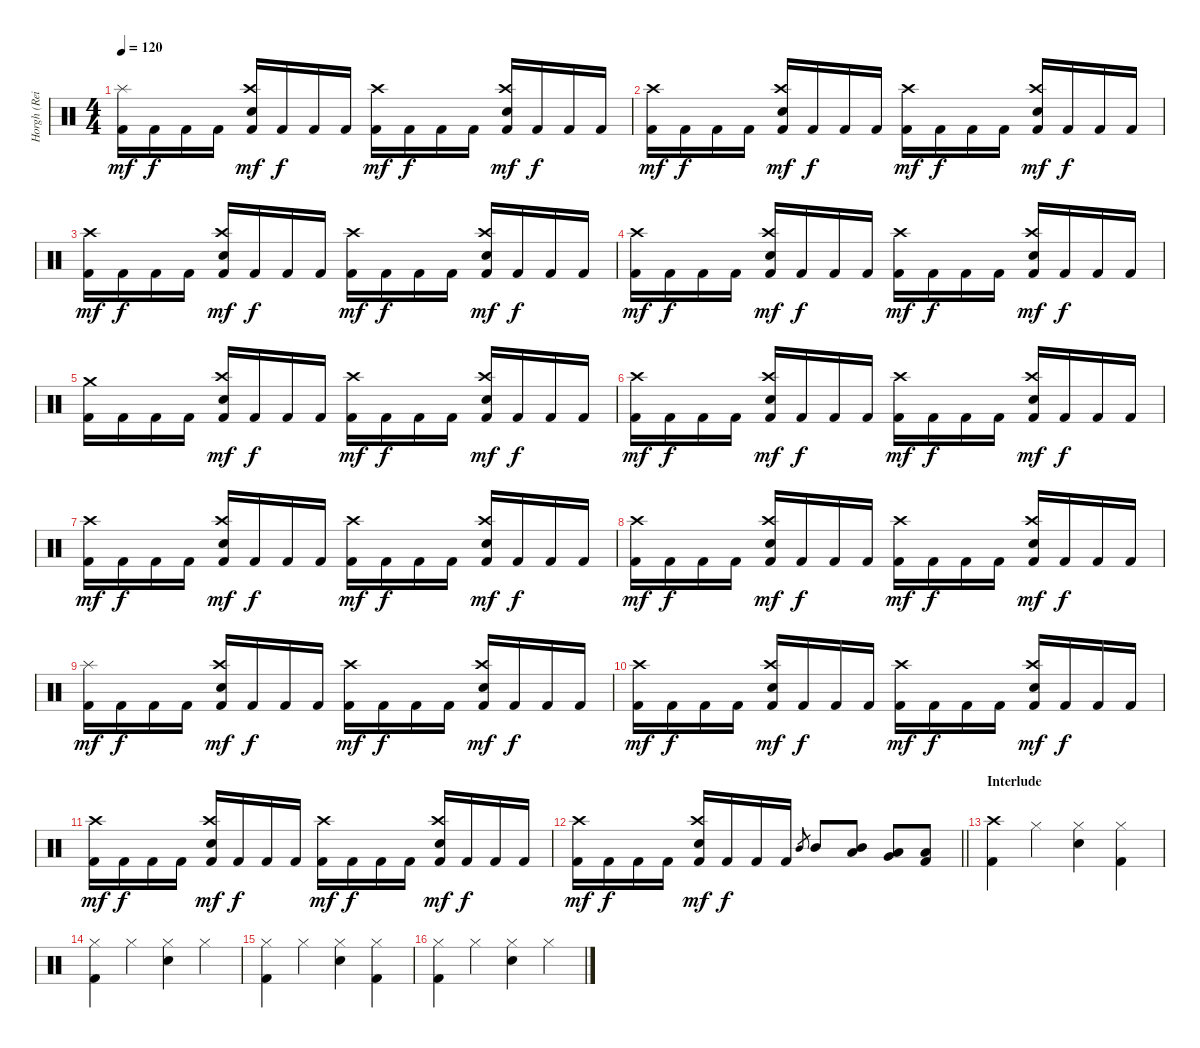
\track ("Horgh (Reidar Horghagen)" "Horgh (Rei") {instrument percussion}
\staff {score}
\articulation defaults
\ts (4 4)
\tempo 120
\clef neutral
\ks c
("Splash (hit)" "Kick (hit) 2").16{dy mf} "Kick (hit) 2".16{dy f} "Kick (hit) 2".16 "Kick (hit) 2".16 ("Crash high (hit)" "Snare (hit) 2" "Kick (hit) 2").16{dy mf} "Kick (hit) 2".16{dy f} "Kick (hit) 2".16 "Kick (hit) 2".16 ("Crash high (hit)" "Kick (hit) 2").16{dy mf} "Kick (hit) 2".16{dy f} "Kick (hit) 2".16 "Kick (hit) 2".16 ("Crash high (hit)" "Snare (hit) 2" "Kick (hit) 2").16{dy mf} "Kick (hit) 2".16{dy f} "Kick (hit) 2".16 "Kick (hit) 2".16 |
("Crash high (hit)" "Kick (hit) 2").16{dy mf} "Kick (hit) 2".16{dy f} "Kick (hit) 2".16 "Kick (hit) 2".16 ("Crash high (hit)" "Snare (hit) 2" "Kick (hit) 2").16{dy mf} "Kick (hit) 2".16{dy f} "Kick (hit) 2".16 "Kick (hit) 2".16 ("Crash high (hit)" "Kick (hit) 2").16{dy mf} "Kick (hit) 2".16{dy f} "Kick (hit) 2".16 "Kick (hit) 2".16 ("Crash high (hit)" "Snare (hit) 2" "Kick (hit) 2").16{dy mf} "Kick (hit) 2".16{dy f} "Kick (hit) 2".16 "Kick (hit) 2".16 |
("Crash high (hit)" "Kick (hit) 2").16{dy mf} "Kick (hit) 2".16{dy f} "Kick (hit) 2".16 "Kick (hit) 2".16 ("Crash high (hit)" "Snare (hit) 2" "Kick (hit) 2").16{dy mf} "Kick (hit) 2".16{dy f} "Kick (hit) 2".16 "Kick (hit) 2".16 ("Crash high (hit)" "Kick (hit) 2").16{dy mf} "Kick (hit) 2".16{dy f} "Kick (hit) 2".16 "Kick (hit) 2".16 ("Crash high (hit)" "Snare (hit) 2" "Kick (hit) 2").16{dy mf} "Kick (hit) 2".16{dy f} "Kick (hit) 2".16 "Kick (hit) 2".16 |
("Crash high (hit)" "Kick (hit) 2").16{dy mf} "Kick (hit) 2".16{dy f} "Kick (hit) 2".16 "Kick (hit) 2".16 ("Crash high (hit)" "Snare (hit) 2" "Kick (hit) 2").16{dy mf} "Kick (hit) 2".16{dy f} "Kick (hit) 2".16 "Kick (hit) 2".16 ("Crash high (hit)" "Kick (hit) 2").16{dy mf} "Kick (hit) 2".16{dy f} "Kick (hit) 2".16 "Kick (hit) 2".16 ("Crash high (hit)" "Snare (hit) 2" "Kick (hit) 2").16{dy mf} "Kick (hit) 2".16{dy f} "Kick (hit) 2".16 "Kick (hit) 2".16 |
("Crash medium (hit)" "Kick (hit) 2").16 "Kick (hit) 2".16 "Kick (hit) 2".16 "Kick (hit) 2".16 ("Crash high (hit)" "Snare (hit) 2" "Kick (hit) 2").16{dy mf} "Kick (hit) 2".16{dy f} "Kick (hit) 2".16 "Kick (hit) 2".16 ("Crash high (hit)" "Kick (hit) 2").16{dy mf} "Kick (hit) 2".16{dy f} "Kick (hit) 2".16 "Kick (hit) 2".16 ("Crash high (hit)" "Snare (hit) 2" "Kick (hit) 2").16{dy mf} "Kick (hit) 2".16{dy f} "Kick (hit) 2".16 "Kick (hit) 2".16 |
("Crash high (hit)" "Kick (hit) 2").16{dy mf} "Kick (hit) 2".16{dy f} "Kick (hit) 2".16 "Kick (hit) 2".16 ("Crash high (hit)" "Snare (hit) 2" "Kick (hit) 2").16{dy mf} "Kick (hit) 2".16{dy f} "Kick (hit) 2".16 "Kick (hit) 2".16 ("Crash high (hit)" "Kick (hit) 2").16{dy mf} "Kick (hit) 2".16{dy f} "Kick (hit) 2".16 "Kick (hit) 2".16 ("Crash high (hit)" "Snare (hit) 2" "Kick (hit) 2").16{dy mf} "Kick (hit) 2".16{dy f} "Kick (hit) 2".16 "Kick (hit) 2".16 |
("Crash high (hit)" "Kick (hit) 2").16{dy mf} "Kick (hit) 2".16{dy f} "Kick (hit) 2".16 "Kick (hit) 2".16 ("Crash high (hit)" "Snare (hit) 2" "Kick (hit) 2").16{dy mf} "Kick (hit) 2".16{dy f} "Kick (hit) 2".16 "Kick (hit) 2".16 ("Crash high (hit)" "Kick (hit) 2").16{dy mf} "Kick (hit) 2".16{dy f} "Kick (hit) 2".16 "Kick (hit) 2".16 ("Crash high (hit)" "Snare (hit) 2" "Kick (hit) 2").16{dy mf} "Kick (hit) 2".16{dy f} "Kick (hit) 2".16 "Kick (hit) 2".16 |
("Crash high (hit)" "Kick (hit) 2").16{dy mf} "Kick (hit) 2".16{dy f} "Kick (hit) 2".16 "Kick (hit) 2".16 ("Crash high (hit)" "Snare (hit) 2" "Kick (hit) 2").16{dy mf} "Kick (hit) 2".16{dy f} "Kick (hit) 2".16 "Kick (hit) 2".16 ("Crash high (hit)" "Kick (hit) 2").16{dy mf} "Kick (hit) 2".16{dy f} "Kick (hit) 2".16 "Kick (hit) 2".16 ("Crash high (hit)" "Snare (hit) 2" "Kick (hit) 2").16{dy mf} "Kick (hit) 2".16{dy f} "Kick (hit) 2".16 "Kick (hit) 2".16 |
("Splash (hit)" "Kick (hit) 2").16{dy mf} "Kick (hit) 2".16{dy f} "Kick (hit) 2".16 "Kick (hit) 2".16 ("Crash high (hit)" "Snare (hit) 2" "Kick (hit) 2").16{dy mf} "Kick (hit) 2".16{dy f} "Kick (hit) 2".16 "Kick (hit) 2".16 ("Crash high (hit)" "Kick (hit) 2").16{dy mf} "Kick (hit) 2".16{dy f} "Kick (hit) 2".16 "Kick (hit) 2".16 ("Crash high (hit)" "Snare (hit) 2" "Kick (hit) 2").16{dy mf} "Kick (hit) 2".16{dy f} "Kick (hit) 2".16 "Kick (hit) 2".16 |
("Crash high (hit)" "Kick (hit) 2").16{dy mf} "Kick (hit) 2".16{dy f} "Kick (hit) 2".16 "Kick (hit) 2".16 ("Crash high (hit)" "Snare (hit) 2" "Kick (hit) 2").16{dy mf} "Kick (hit) 2".16{dy f} "Kick (hit) 2".16 "Kick (hit) 2".16 ("Crash high (hit)" "Kick (hit) 2").16{dy mf} "Kick (hit) 2".16{dy f} "Kick (hit) 2".16 "Kick (hit) 2".16 ("Crash high (hit)" "Snare (hit) 2" "Kick (hit) 2").16{dy mf} "Kick (hit) 2".16{dy f} "Kick (hit) 2".16 "Kick (hit) 2".16 |
("Crash high (hit)" "Kick (hit) 2").16{dy mf} "Kick (hit) 2".16{dy f} "Kick (hit) 2".16 "Kick (hit) 2".16 ("Crash high (hit)" "Snare (hit) 2" "Kick (hit) 2").16{dy mf} "Kick (hit) 2".16{dy f} "Kick (hit) 2".16 "Kick (hit) 2".16 ("Crash high (hit)" "Kick (hit) 2").16{dy mf} "Kick (hit) 2".16{dy f} "Kick (hit) 2".16 "Kick (hit) 2".16 ("Crash high (hit)" "Snare (hit) 2" "Kick (hit) 2").16{dy mf} "Kick (hit) 2".16{dy f} "Kick (hit) 2".16 "Kick (hit) 2".16 |
\barLineRight lightlight
("Crash high (hit)" "Kick (hit) 2").16{dy mf} "Kick (hit) 2".16{dy f} "Kick (hit) 2".16 "Kick (hit) 2".16 ("Crash high (hit)" "Snare (hit) 2" "Kick (hit) 2").16{dy mf} "Kick (hit) 2".16{dy f} "Kick (hit) 2".16 "Kick (hit) 2".16 "Mid Tom (hit)".8{gr} "Mid Tom (hit)".8 ("Mid Tom (hit)" "Low Tom (hit)").8 ("Low Tom (hit)" "Very Low Tom (hit)").8 ("Low Floor Tom (hit)" "Kick (hit) 2").8 |
\section ("" "Interlude")
("Crash high (hit)" "Kick (hit) 2").4 "Hi-Hat (closed)".4 ("Hi-Hat (closed)" "Snare (hit) 2").4 ("Hi-Hat (closed)" "Kick (hit) 2").4 |
("Hi-Hat (closed)" "Kick (hit) 2").4 "Hi-Hat (closed)".4 ("Hi-Hat (closed)" "Snare (hit) 2").4 "Hi-Hat (closed)".4 |
("Hi-Hat (closed)" "Kick (hit) 2").4 "Hi-Hat (closed)".4 ("Hi-Hat (closed)" "Snare (hit) 2").4 ("Hi-Hat (closed)" "Kick (hit) 2").4 |
("Hi-Hat (closed)" "Kick (hit) 2").4 "Hi-Hat (closed)".4 ("Hi-Hat (closed)" "Snare (hit) 2").4 "Hi-Hat (closed)".4
